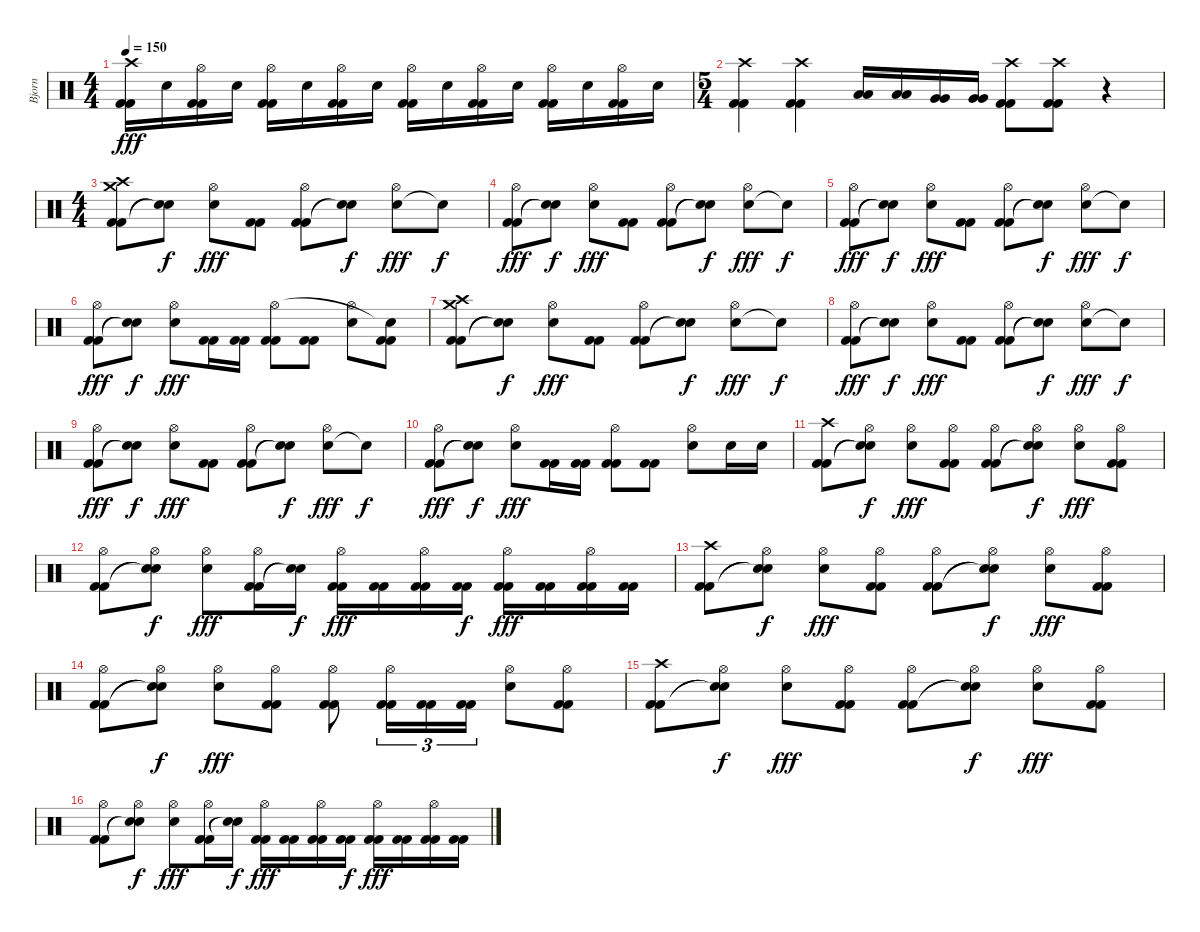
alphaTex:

\track ("Bjorn" "Bjorn") {instrument percussion}
\staff {score}
\articulation defaults
\ts (4 4)
\tempo 150
\clef neutral
\ks c
("Kick (hit) 2" "Kick (hit) 2" "Crash high (hit)").16{dy fff} "Snare (hit) 2".16 ("Kick (hit) 2" "Kick (hit) 2" "Hi-Hat (open)").16 "Snare (hit) 2".16 ("Kick (hit) 2" "Kick (hit) 2" "Hi-Hat (open)").16 "Snare (hit) 2".16 ("Kick (hit) 2" "Kick (hit) 2" "Hi-Hat (open)").16 "Snare (hit) 2".16 ("Kick (hit) 2" "Kick (hit) 2" "Hi-Hat (open)").16 "Snare (hit) 2".16 ("Kick (hit) 2" "Kick (hit) 2" "Hi-Hat (open)").16 "Snare (hit) 2".16 ("Kick (hit) 2" "Kick (hit) 2" "Hi-Hat (open)").16 "Snare (hit) 2".16 ("Kick (hit) 2" "Kick (hit) 2" "Hi-Hat (open)").16 "Snare (hit) 2".16 |
\ts (5 4)
("Kick (hit) 2" "Kick (hit) 2" "Crash high (hit)").4 ("Kick (hit) 2" "Kick (hit) 2" "Crash high (hit)").4 ("Low Tom (hit)" "Low Tom (hit)").16 ("Low Tom (hit)" "Low Tom (hit)").16 ("Very Low Tom (hit)" "Very Low Tom (hit)").16 ("Very Low Tom (hit)" "Very Low Tom (hit)").16 ("Kick (hit) 2" "Kick (hit) 2" "Crash high (hit)").8 ("Kick (hit) 2" "Kick (hit) 2" "Crash high (hit)").8 r.4 |
\ts (4 4)
("Kick (hit) 2" "Kick (hit) 2" "Crash high (hit)" "Crash medium (hit)").8 ("Snare (hit)"{t} "Snare (hit)"{t}).8{dy f} ("Snare (hit) 2" "Hi-Hat (open)").8{dy fff} ("Kick (hit) 2" "Kick (hit) 2").8 ("Kick (hit) 2" "Kick (hit) 2" "Hi-Hat (open)").8 ("Snare (hit)"{t} "Snare (hit)"{t}).8{dy f} ("Snare (hit) 2" "Hi-Hat (open)").8{dy fff} "Snare (hit)"{t}.8{dy f} |
("Kick (hit) 2" "Kick (hit) 2" "Hi-Hat (open)").8{dy fff} ("Snare (hit)"{t} "Snare (hit)"{t}).8{dy f} ("Snare (hit) 2" "Hi-Hat (open)").8{dy fff} ("Kick (hit) 2" "Kick (hit) 2").8 ("Kick (hit) 2" "Kick (hit) 2" "Hi-Hat (open)").8 ("Snare (hit)"{t} "Snare (hit)"{t}).8{dy f} ("Snare (hit) 2" "Hi-Hat (open)").8{dy fff} "Snare (hit)"{t}.8{dy f} |
("Kick (hit) 2" "Kick (hit) 2" "Hi-Hat (open)").8{dy fff} ("Snare (hit)"{t} "Snare (hit)"{t}).8{dy f} ("Snare (hit) 2" "Hi-Hat (open)").8{dy fff} ("Kick (hit) 2" "Kick (hit) 2").8 ("Kick (hit) 2" "Kick (hit) 2" "Hi-Hat (open)").8 ("Snare (hit)"{t} "Snare (hit)"{t}).8{dy f} ("Snare (hit) 2" "Hi-Hat (open)").8{dy fff} "Snare (hit)"{t}.8{dy f} |
("Kick (hit) 2" "Kick (hit) 2" "Hi-Hat (open)").8{dy fff} ("Snare (hit)"{t} "Snare (hit)"{t}).8{dy f} ("Snare (hit) 2" "Hi-Hat (open)").8{dy fff} ("Kick (hit) 2" "Kick (hit) 2").16 ("Kick (hit) 2" "Kick (hit) 2").16 ("Kick (hit) 2" "Kick (hit) 2" "Hi-Hat (open)").8 ("Kick (hit) 2" "Kick (hit) 2").8 ("Snare (hit) 2" "Hi-Hat (open)").8 ("Kick (hit) 2" "Kick (hit) 2" "Snare (hit)"{t}).8 |
("Kick (hit) 2" "Kick (hit) 2" "Crash high (hit)" "Crash medium (hit)").8 ("Snare (hit)"{t} "Snare (hit)"{t}).8{dy f} ("Snare (hit) 2" "Hi-Hat (open)").8{dy fff} ("Kick (hit) 2" "Kick (hit) 2").8 ("Kick (hit) 2" "Kick (hit) 2" "Hi-Hat (open)").8 ("Snare (hit)"{t} "Snare (hit)"{t}).8{dy f} ("Snare (hit) 2" "Hi-Hat (open)").8{dy fff} "Snare (hit)"{t}.8{dy f} |
("Kick (hit) 2" "Kick (hit) 2" "Hi-Hat (open)").8{dy fff} ("Snare (hit)"{t} "Snare (hit)"{t}).8{dy f} ("Snare (hit) 2" "Hi-Hat (open)").8{dy fff} ("Kick (hit) 2" "Kick (hit) 2").8 ("Kick (hit) 2" "Kick (hit) 2" "Hi-Hat (open)").8 ("Snare (hit)"{t} "Snare (hit)"{t}).8{dy f} ("Snare (hit) 2" "Hi-Hat (open)").8{dy fff} "Snare (hit)"{t}.8{dy f} |
("Kick (hit) 2" "Kick (hit) 2" "Hi-Hat (open)").8{dy fff} ("Snare (hit)"{t} "Snare (hit)"{t}).8{dy f} ("Snare (hit) 2" "Hi-Hat (open)").8{dy fff} ("Kick (hit) 2" "Kick (hit) 2").8 ("Kick (hit) 2" "Kick (hit) 2" "Hi-Hat (open)").8 ("Snare (hit)"{t} "Snare (hit)"{t}).8{dy f} ("Snare (hit) 2" "Hi-Hat (open)").8{dy fff} "Snare (hit)"{t}.8{dy f} |
("Kick (hit) 2" "Kick (hit) 2" "Hi-Hat (open)").8{dy fff} ("Snare (hit)"{t} "Snare (hit)"{t}).8{dy f} ("Snare (hit) 2" "Hi-Hat (open)").8{dy fff} ("Kick (hit) 2" "Kick (hit) 2").16 ("Kick (hit) 2" "Kick (hit) 2").16 ("Kick (hit) 2" "Kick (hit) 2" "Hi-Hat (open)").8 ("Kick (hit) 2" "Kick (hit) 2").8 ("Snare (hit) 2" "Hi-Hat (open)").8 "Snare (hit) 2".16 "Snare (hit) 2".16 |
("Kick (hit) 2" "Kick (hit) 2" "Crash high (hit)").8 ("Snare (hit)"{t} "Snare (hit)"{t} "Hi-Hat (open)").8{dy f} ("Snare (hit) 2" "Hi-Hat (open)").8{dy fff} ("Kick (hit) 2" "Kick (hit) 2" "Hi-Hat (open)").8 ("Kick (hit) 2" "Kick (hit) 2" "Hi-Hat (open)").8 ("Snare (hit)"{t} "Snare (hit)"{t} "Hi-Hat (open)").8{dy f} ("Snare (hit) 2" "Hi-Hat (open)").8{dy fff} ("Kick (hit) 2" "Kick (hit) 2" "Hi-Hat (open)").8 |
("Kick (hit) 2" "Kick (hit) 2" "Hi-Hat (open)").8 ("Snare (hit)"{t} "Snare (hit)"{t} "Hi-Hat (open)").8{dy f} ("Snare (hit) 2" "Hi-Hat (open)").8{dy fff} ("Kick (hit) 2" "Kick (hit) 2" "Hi-Hat (open)").16 ("Snare (hit)"{t} "Snare (hit)"{t}).16{dy f} ("Kick (hit) 2" "Kick (hit) 2" "Hi-Hat (open)").16{dy fff} ("Kick (hit) 2" "Kick (hit) 2").16 ("Kick (hit) 2" "Kick (hit) 2" "Hi-Hat (open)").16 ("Kick (hit) 2" "Kick (hit) 2").16{dy f} ("Kick (hit) 2" "Kick (hit) 2" "Hi-Hat (open)").16{dy fff} ("Kick (hit) 2" "Kick (hit) 2").16 ("Kick (hit) 2" "Kick (hit) 2" "Hi-Hat (open)").16 ("Kick (hit) 2" "Kick (hit) 2").16 |
("Kick (hit) 2" "Kick (hit) 2" "Crash high (hit)").8 ("Snare (hit)"{t} "Snare (hit)"{t} "Hi-Hat (open)").8{dy f} ("Snare (hit) 2" "Hi-Hat (open)").8{dy fff} ("Kick (hit) 2" "Kick (hit) 2" "Hi-Hat (open)").8 ("Kick (hit) 2" "Kick (hit) 2" "Hi-Hat (open)").8 ("Snare (hit)"{t} "Snare (hit)"{t} "Hi-Hat (open)").8{dy f} ("Snare (hit) 2" "Hi-Hat (open)").8{dy fff} ("Kick (hit) 2" "Kick (hit) 2" "Hi-Hat (open)").8 |
("Kick (hit) 2" "Kick (hit) 2" "Hi-Hat (open)").8 ("Snare (hit)"{t} "Snare (hit)"{t} "Hi-Hat (open)").8{dy f} ("Snare (hit) 2" "Hi-Hat (open)").8{dy fff} ("Kick (hit) 2" "Kick (hit) 2" "Hi-Hat (open)").8 ("Kick (hit) 2" "Kick (hit) 2" "Hi-Hat (open)").8 ("Kick (hit) 2" "Kick (hit) 2" "Hi-Hat (open)").16{tu (3 2)} ("Kick (hit) 2" "Kick (hit) 2").16{tu (3 2)} ("Kick (hit) 2" "Kick (hit) 2").16{tu (3 2)} ("Snare (hit) 2" "Hi-Hat (open)").8 ("Kick (hit) 2" "Kick (hit) 2" "Hi-Hat (open)").8 |
("Kick (hit) 2" "Kick (hit) 2" "Crash high (hit)").8 ("Snare (hit)"{t} "Snare (hit)"{t} "Hi-Hat (open)").8{dy f} ("Snare (hit) 2" "Hi-Hat (open)").8{dy fff} ("Kick (hit) 2" "Kick (hit) 2" "Hi-Hat (open)").8 ("Kick (hit) 2" "Kick (hit) 2" "Hi-Hat (open)").8 ("Snare (hit)"{t} "Snare (hit)"{t} "Hi-Hat (open)").8{dy f} ("Snare (hit) 2" "Hi-Hat (open)").8{dy fff} ("Kick (hit) 2" "Kick (hit) 2" "Hi-Hat (open)").8 |
("Kick (hit) 2" "Kick (hit) 2" "Hi-Hat (open)").8 ("Snare (hit)"{t} "Snare (hit)"{t} "Hi-Hat (open)").8{dy f} ("Snare (hit) 2" "Hi-Hat (open)").8{dy fff} ("Kick (hit) 2" "Kick (hit) 2" "Hi-Hat (open)").16 ("Snare (hit)"{t} "Snare (hit)"{t}).16{dy f} ("Kick (hit) 2" "Kick (hit) 2" "Hi-Hat (open)").16{dy fff} ("Kick (hit) 2" "Kick (hit) 2").16 ("Kick (hit) 2" "Kick (hit) 2" "Hi-Hat (open)").16 ("Kick (hit) 2" "Kick (hit) 2").16{dy f} ("Kick (hit) 2" "Kick (hit) 2" "Hi-Hat (open)").16{dy fff} ("Kick (hit) 2" "Kick (hit) 2").16 ("Kick (hit) 2" "Kick (hit) 2" "Hi-Hat (open)").16 ("Kick (hit) 2" "Kick (hit) 2").16
